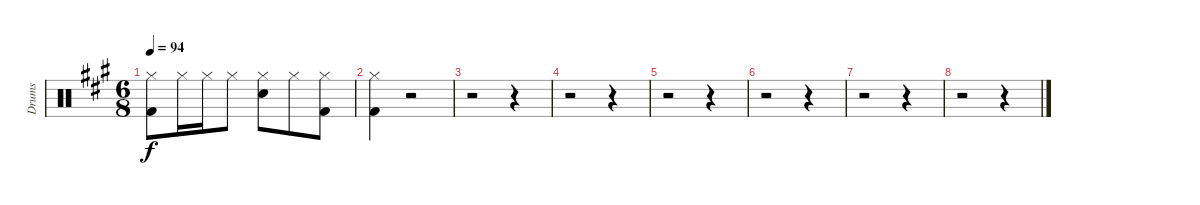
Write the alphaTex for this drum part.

\track ("Drums" "Drums") {instrument percussion}
\staff {score}
\articulation defaults
\ts (6 8)
\tempo 94
\clef neutral
\ks a
("Hi-Hat (closed)" "Kick (hit) 2").8{dy f} "Hi-Hat (closed)".16 "Hi-Hat (closed)".16 "Hi-Hat (closed)".8 ("Hi-Hat (closed)" "Snare (hit) 2").8 "Hi-Hat (closed)".8 ("Hi-Hat (closed)" "Kick (hit) 2").8 |
("Hi-Hat (closed)" "Kick (hit) 2").4 r.2 |
r.2 r.4 |
r.2 r.4 |
r.2 r.4 |
r.2 r.4 |
r.2 r.4 |
r.2 r.4
